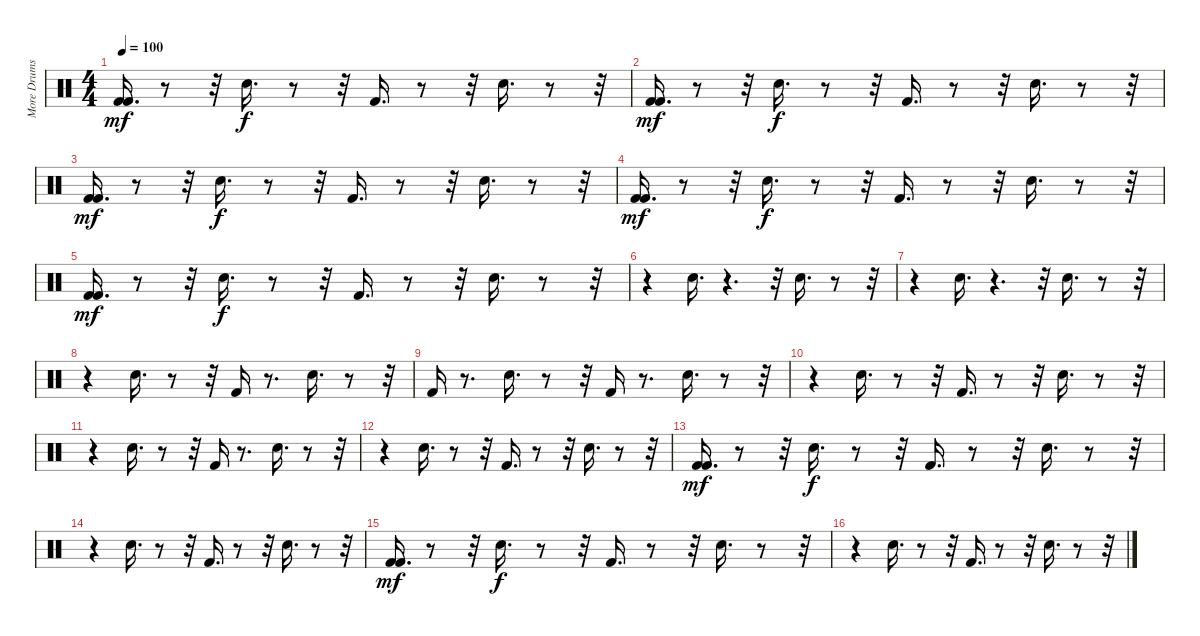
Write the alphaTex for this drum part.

\track ("More Drums" "More Drums") {instrument percussion}
\staff {score}
\articulation defaults
\ts (4 4)
\tempo 100
\clef neutral
\ks c
("Kick (hit) 2" "Kick (hit) 2").16{d dy mf} r.8 r.32 "Electric Snare (hit)".16{d dy f} r.8 r.32 "Kick (hit) 2".16{d} r.8 r.32 "Electric Snare (hit)".16{d} r.8 r.32 |
("Kick (hit) 2" "Kick (hit) 2").16{d dy mf} r.8 r.32 "Electric Snare (hit)".16{d dy f} r.8 r.32 "Kick (hit) 2".16{d} r.8 r.32 "Electric Snare (hit)".16{d} r.8 r.32 |
("Kick (hit) 2" "Kick (hit) 2").16{d dy mf} r.8 r.32 "Electric Snare (hit)".16{d dy f} r.8 r.32 "Kick (hit) 2".16{d} r.8 r.32 "Electric Snare (hit)".16{d} r.8 r.32 |
("Kick (hit) 2" "Kick (hit) 2").16{d dy mf} r.8 r.32 "Electric Snare (hit)".16{d dy f} r.8 r.32 "Kick (hit) 2".16{d} r.8 r.32 "Electric Snare (hit)".16{d} r.8 r.32 |
("Kick (hit) 2" "Kick (hit) 2").16{d dy mf} r.8 r.32 "Electric Snare (hit)".16{d dy f} r.8 r.32 "Kick (hit) 2".16{d} r.8 r.32 "Electric Snare (hit)".16{d} r.8 r.32 |
r.4 "Electric Snare (hit)".16{d} r.4{d} r.32 "Electric Snare (hit)".16{d} r.8 r.32 |
r.4 "Electric Snare (hit)".16{d} r.4{d} r.32 "Electric Snare (hit)".16{d} r.8 r.32 |
r.4 "Electric Snare (hit)".16{d} r.8 r.32 "Kick (hit) 2".16 r.8{d} "Electric Snare (hit)".16{d} r.8 r.32 |
"Kick (hit) 2".16 r.8{d} "Electric Snare (hit)".16{d} r.8 r.32 "Kick (hit) 2".16 r.8{d} "Electric Snare (hit)".16{d} r.8 r.32 |
r.4 "Electric Snare (hit)".16{d} r.8 r.32 "Kick (hit) 2".16{d} r.8 r.32 "Electric Snare (hit)".16{d} r.8 r.32 |
r.4 "Electric Snare (hit)".16{d} r.8 r.32 "Kick (hit) 2".16 r.8{d} "Electric Snare (hit)".16{d} r.8 r.32 |
r.4 "Electric Snare (hit)".16{d} r.8 r.32 "Kick (hit) 2".16{d} r.8 r.32 "Electric Snare (hit)".16{d} r.8 r.32 |
("Kick (hit) 2" "Kick (hit) 2").16{d dy mf} r.8 r.32 "Electric Snare (hit)".16{d dy f} r.8 r.32 "Kick (hit) 2".16{d} r.8 r.32 "Electric Snare (hit)".16{d} r.8 r.32 |
r.4 "Electric Snare (hit)".16{d} r.8 r.32 "Kick (hit) 2".16{d} r.8 r.32 "Electric Snare (hit)".16{d} r.8 r.32 |
("Kick (hit) 2" "Kick (hit) 2").16{d dy mf} r.8 r.32 "Electric Snare (hit)".16{d dy f} r.8 r.32 "Kick (hit) 2".16{d} r.8 r.32 "Electric Snare (hit)".16{d} r.8 r.32 |
r.4 "Electric Snare (hit)".16{d} r.8 r.32 "Kick (hit) 2".16{d} r.8 r.32 "Electric Snare (hit)".16{d} r.8 r.32
